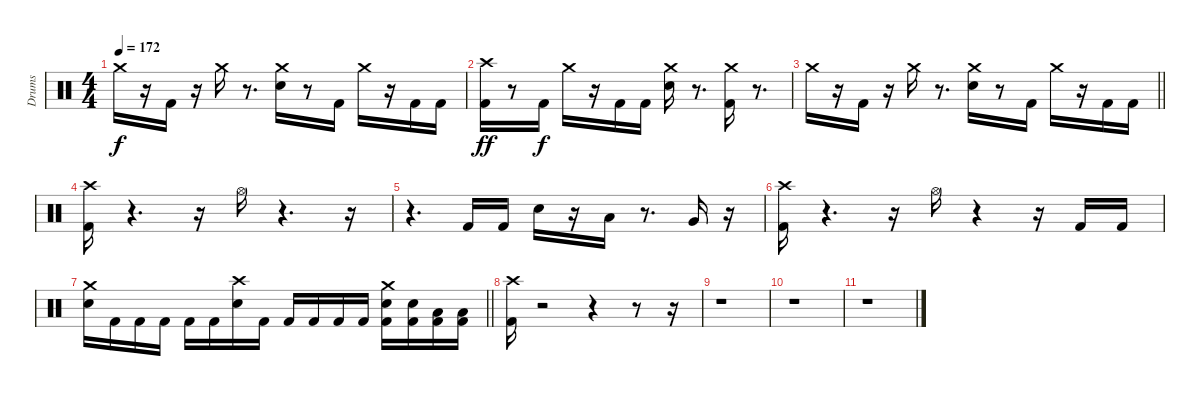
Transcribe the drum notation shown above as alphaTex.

\track ("Drums" "Drums") {instrument percussion}
\staff {score}
\articulation defaults
\ts (4 4)
\tempo 172
\clef neutral
\ks c "Crash medium (hit)".16{dy f}
r.16 "Kick (hit) 2".16 r.16 "Crash medium (hit)".16 r.8{d} ("Snare (hit) 2" "Crash medium (hit)").16 r.8 "Kick (hit) 2".16 "Crash medium (hit)".16 r.16 "Kick (hit) 2".16 "Kick (hit) 2".16 |
("Kick (hit) 2" "Crash high (hit)").16{dy ff} r.8 "Kick (hit) 2".16{dy f} "Crash medium (hit)".16 r.16 "Kick (hit) 2".16 "Kick (hit) 2".16 ("Snare (hit) 2" "Crash medium (hit)").16 r.8{d} ("Kick (hit) 2" "Crash medium (hit)").16 r.8{d} |
\barLineRight lightlight "Crash medium (hit)".16
r.16 "Kick (hit) 2".16 r.16 "Crash medium (hit)".16 r.8{d} ("Snare (hit) 2" "Crash medium (hit)").16 r.8 "Kick (hit) 2".16 "Crash medium (hit)".16 r.16 "Kick (hit) 2".16 "Kick (hit) 2".16 |
\section ("" " ")
("Kick (hit) 2" "Crash high (hit)").16 r.4{d} r.16 "Hi-Hat (open)".16 r.4{d} r.16 |
r.4{d} "Kick (hit) 2".16 "Kick (hit) 2".16 "Snare (hit) 2".16 r.16 "Low Tom (hit)".16 r.8{d} "Very Low Tom (hit)".16 r.16 |
("Kick (hit) 2" "Crash high (hit)").16 r.4{d} r.16 "Hi-Hat (open)".16 r.4 r.16 "Kick (hit) 2".16 "Kick (hit) 2".16 |
\barLineRight lightlight
("Snare (hit) 2" "Crash medium (hit)").16 "Kick (hit) 2".16 "Kick (hit) 2".16 "Kick (hit) 2".16 "Kick (hit) 2".16 "Kick (hit) 2".16 ("Snare (hit) 2" "Crash high (hit)").16 "Kick (hit) 2".16 "Kick (hit) 2".16 "Kick (hit) 2".16 "Kick (hit) 2".16 "Kick (hit) 2".16 ("Kick (hit) 2" "Snare (hit) 2" "Crash medium (hit)").16 ("Kick (hit) 2" "Snare (hit) 2").16 ("Kick (hit) 2" "Low Tom (hit)").16 ("Kick (hit) 2" "Low Tom (hit)").16 |
\section ("" " ")
("Kick (hit) 2" "Crash high (hit)").16 r.2 r.4 r.8 r.16 |
r.1 |
r.1 |
r.1
